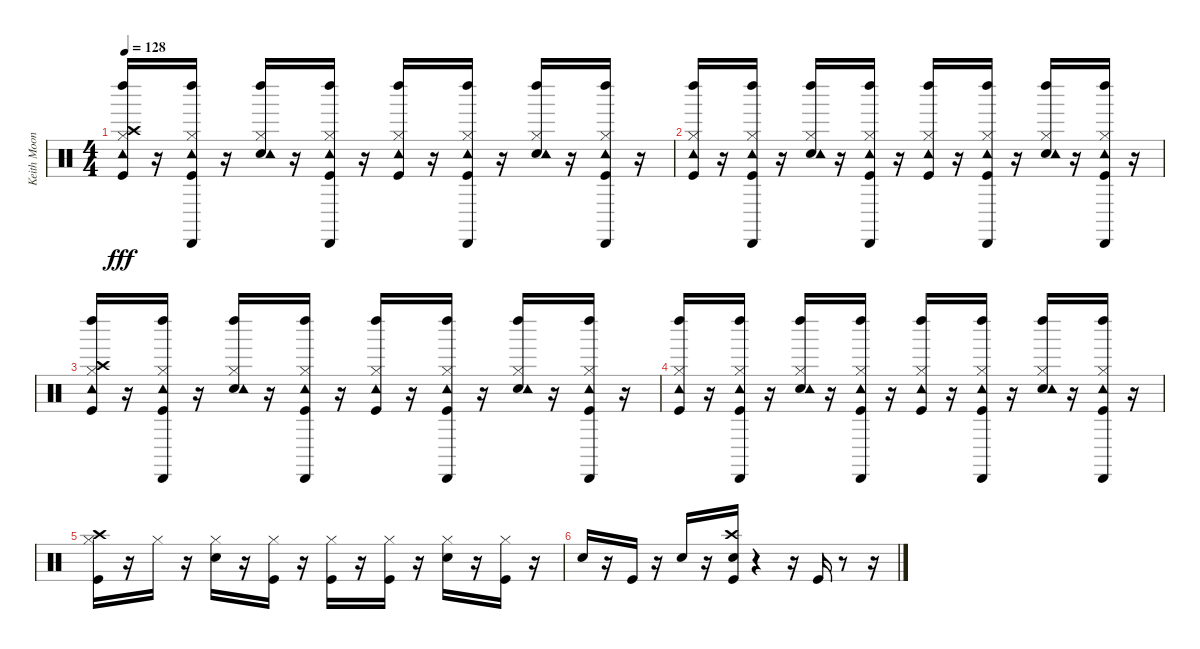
\track ("Keith Moon" "Keith Moon") {instrument percussion}
\staff {score}
\articulation defaults
\ts (4 4)
\tempo 128
\clef neutral
\ks c
("Kick (hit)" "Hi-Hat (closed)" "Crash high (hit)" "Tambourine (hit)" "Left Maraca (hit)").16{dy fff} r.16 ("Kick (hit)" "Hi-Hat (closed)" "Tambourine (hit)" "Left Maraca (hit)" "Cabasa (hit)").16 r.16 ("Snare (hit) 2" "Hi-Hat (closed)" "Tambourine (hit)" "Left Maraca (hit)").16 r.16 ("Kick (hit)" "Hi-Hat (closed)" "Tambourine (hit)" "Left Maraca (hit)" "Cabasa (hit)").16 r.16 ("Kick (hit)" "Hi-Hat (closed)" "Tambourine (hit)" "Left Maraca (hit)").16 r.16 ("Kick (hit)" "Hi-Hat (closed)" "Tambourine (hit)" "Left Maraca (hit)" "Cabasa (hit)").16 r.16 ("Snare (hit) 2" "Hi-Hat (closed)" "Tambourine (hit)" "Left Maraca (hit)").16 r.16 ("Kick (hit)" "Hi-Hat (closed)" "Tambourine (hit)" "Left Maraca (hit)" "Cabasa (hit)").16 r.16 |
("Kick (hit)" "Hi-Hat (closed)" "Tambourine (hit)" "Left Maraca (hit)").16 r.16 ("Kick (hit)" "Hi-Hat (closed)" "Tambourine (hit)" "Left Maraca (hit)" "Cabasa (hit)").16 r.16 ("Snare (hit) 2" "Hi-Hat (closed)" "Tambourine (hit)" "Left Maraca (hit)").16 r.16 ("Kick (hit)" "Hi-Hat (closed)" "Tambourine (hit)" "Left Maraca (hit)" "Cabasa (hit)").16 r.16 ("Kick (hit)" "Hi-Hat (closed)" "Tambourine (hit)" "Left Maraca (hit)").16 r.16 ("Kick (hit)" "Hi-Hat (closed)" "Tambourine (hit)" "Left Maraca (hit)" "Cabasa (hit)").16 r.16 ("Snare (hit) 2" "Hi-Hat (closed)" "Tambourine (hit)" "Left Maraca (hit)").16 r.16 ("Kick (hit)" "Hi-Hat (closed)" "Tambourine (hit)" "Left Maraca (hit)" "Cabasa (hit)").16 r.16 |
("Kick (hit)" "Hi-Hat (closed)" "Crash high (hit)" "Tambourine (hit)" "Left Maraca (hit)").16 r.16 ("Kick (hit)" "Hi-Hat (closed)" "Tambourine (hit)" "Left Maraca (hit)" "Cabasa (hit)").16 r.16 ("Snare (hit) 2" "Hi-Hat (closed)" "Tambourine (hit)" "Left Maraca (hit)").16 r.16 ("Kick (hit)" "Hi-Hat (closed)" "Tambourine (hit)" "Left Maraca (hit)" "Cabasa (hit)").16 r.16 ("Kick (hit)" "Hi-Hat (closed)" "Tambourine (hit)" "Left Maraca (hit)").16 r.16 ("Kick (hit)" "Hi-Hat (closed)" "Tambourine (hit)" "Left Maraca (hit)" "Cabasa (hit)").16 r.16 ("Snare (hit) 2" "Hi-Hat (closed)" "Tambourine (hit)" "Left Maraca (hit)").16 r.16 ("Kick (hit)" "Hi-Hat (closed)" "Tambourine (hit)" "Left Maraca (hit)" "Cabasa (hit)").16 r.16 |
("Kick (hit)" "Hi-Hat (closed)" "Tambourine (hit)" "Left Maraca (hit)").16 r.16 ("Kick (hit)" "Hi-Hat (closed)" "Tambourine (hit)" "Left Maraca (hit)" "Cabasa (hit)").16 r.16 ("Snare (hit) 2" "Hi-Hat (closed)" "Tambourine (hit)" "Left Maraca (hit)").16 r.16 ("Kick (hit)" "Hi-Hat (closed)" "Tambourine (hit)" "Left Maraca (hit)" "Cabasa (hit)").16 r.16 ("Kick (hit)" "Hi-Hat (closed)" "Tambourine (hit)" "Left Maraca (hit)").16 r.16 ("Kick (hit)" "Hi-Hat (closed)" "Tambourine (hit)" "Left Maraca (hit)" "Cabasa (hit)").16 r.16 ("Snare (hit) 2" "Hi-Hat (closed)" "Tambourine (hit)" "Left Maraca (hit)").16 r.16 ("Kick (hit)" "Hi-Hat (closed)" "Tambourine (hit)" "Left Maraca (hit)" "Cabasa (hit)").16 r.16 |
("Kick (hit)" "Hi-Hat (closed)" "Crash high (hit)").16 r.16 "Hi-Hat (closed)".16 r.16 ("Snare (hit) 2" "Hi-Hat (closed)").16 r.16 ("Kick (hit)" "Hi-Hat (closed)").16 r.16 ("Kick (hit)" "Hi-Hat (closed)").16 r.16 ("Kick (hit)" "Hi-Hat (closed)").16 r.16 ("Snare (hit) 2" "Hi-Hat (closed)").16 r.16 ("Kick (hit)" "Hi-Hat (closed)").16 r.16 |
"Snare (hit) 2".16 r.16 "Kick (hit)".16 r.16 "Snare (hit) 2".16 r.16 ("Kick (hit)" "Snare (hit) 2" "Crash high (hit)").16 r.4 r.16 "Kick (hit)".16 r.8 r.16
